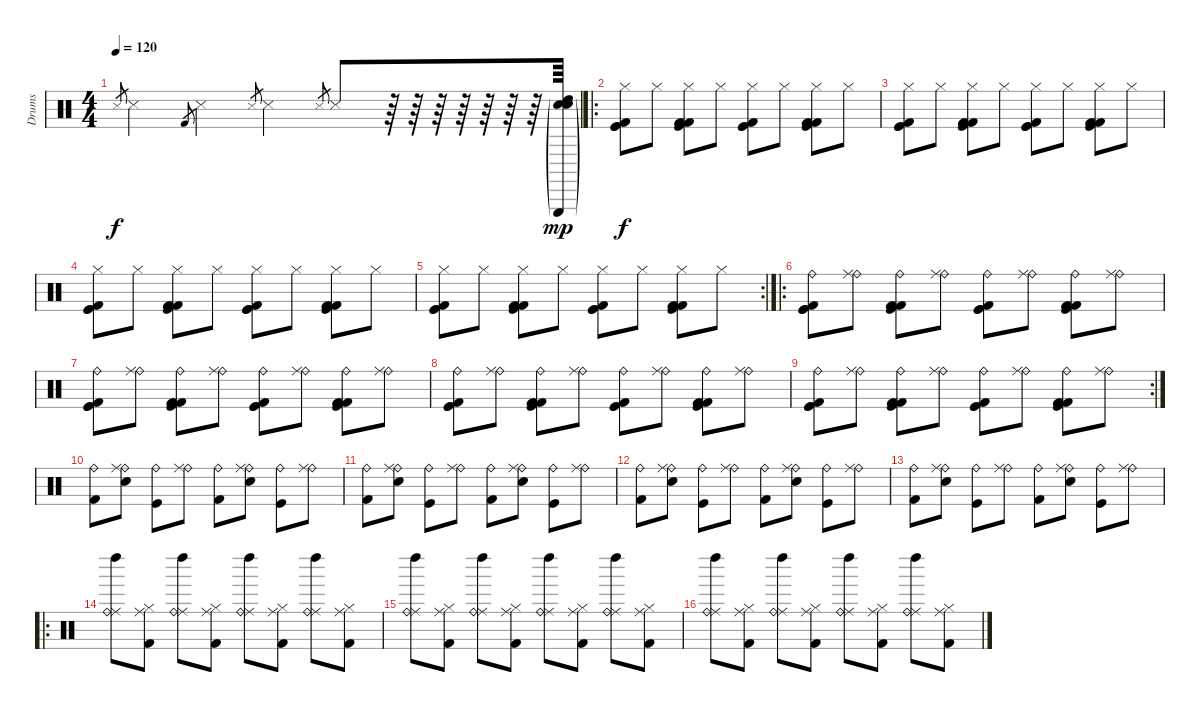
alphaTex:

\track ("Drums" "Drums") {instrument percussion}
\staff {score}
\articulation defaults
\ts (4 4)
\tempo 120
\clef neutral
\ks c "Snare (side stick) 3".8{gr dy f} "Snare (side stick) 3".4 "Kick (hit) 2".8{gr} "Snare (side stick) 3".4 "Snare (side stick) 3".8{gr} "Snare (side stick) 3".4 "Snare (side stick) 3".8{gr} "Snare (side stick) 3".8
r.64 r.64 r.64 r.64 r.64 r.64 r.64 ("Electric Snare (hit)"{g} "Snare (hit) 2"{g} "High Tom (hit)"{g} "Triangle (hit)"{g}).64{dy mp} |
\ro
("Hi-Hat (closed)" "Kick (hit)" "Kick (hit) 2" "Kick (hit)").8{dy f} "Hi-Hat (closed)".8 ("Hi-Hat (closed)" "Kick (hit) 2" "Kick (hit)" "Kick (hit) 2").8 "Hi-Hat (closed)".8 ("Hi-Hat (closed)" "Kick (hit)" "Kick (hit) 2" "Kick (hit)").8 "Hi-Hat (closed)".8 ("Hi-Hat (closed)" "Kick (hit) 2" "Kick (hit)" "Kick (hit) 2").8 "Hi-Hat (closed)".8 |
("Hi-Hat (closed)" "Kick (hit)" "Kick (hit) 2" "Kick (hit)").8 "Hi-Hat (closed)".8 ("Hi-Hat (closed)" "Kick (hit) 2" "Kick (hit)" "Kick (hit) 2").8 "Hi-Hat (closed)".8 ("Hi-Hat (closed)" "Kick (hit)" "Kick (hit) 2" "Kick (hit)").8 "Hi-Hat (closed)".8 ("Hi-Hat (closed)" "Kick (hit) 2" "Kick (hit)" "Kick (hit) 2").8 "Hi-Hat (closed)".8 |
("Hi-Hat (closed)" "Kick (hit)" "Kick (hit) 2" "Kick (hit)").8 "Hi-Hat (closed)".8 ("Hi-Hat (closed)" "Kick (hit) 2" "Kick (hit)" "Kick (hit) 2").8 "Hi-Hat (closed)".8 ("Hi-Hat (closed)" "Kick (hit)" "Kick (hit) 2" "Kick (hit)").8 "Hi-Hat (closed)".8 ("Hi-Hat (closed)" "Kick (hit) 2" "Kick (hit)" "Kick (hit) 2").8 "Hi-Hat (closed)".8 |
\rc 2
("Hi-Hat (closed)" "Kick (hit)" "Kick (hit) 2" "Kick (hit)").8 "Hi-Hat (closed)".8 ("Hi-Hat (closed)" "Kick (hit) 2" "Kick (hit)" "Kick (hit) 2").8 "Hi-Hat (closed)".8 ("Hi-Hat (closed)" "Kick (hit)" "Kick (hit) 2" "Kick (hit)").8 "Hi-Hat (closed)".8 ("Hi-Hat (closed)" "Kick (hit) 2" "Kick (hit)" "Kick (hit) 2").8 "Hi-Hat (closed)".8 |
\ro
("Ride (bell)" "Kick (hit)" "Kick (hit) 2" "Kick (hit)").8 ("Ride (bell)" "Ride (middle)").8 ("Ride (bell)" "Kick (hit) 2" "Kick (hit)" "Kick (hit) 2").8 ("Ride (bell)" "Ride (middle)").8 ("Ride (bell)" "Kick (hit)" "Kick (hit) 2" "Kick (hit)").8 ("Ride (bell)" "Ride (middle)").8 ("Ride (bell)" "Kick (hit) 2" "Kick (hit)" "Kick (hit) 2").8 ("Ride (bell)" "Ride (middle)").8 |
("Ride (bell)" "Kick (hit)" "Kick (hit) 2" "Kick (hit)").8 ("Ride (bell)" "Ride (middle)").8 ("Ride (bell)" "Kick (hit) 2" "Kick (hit)" "Kick (hit) 2").8 ("Ride (bell)" "Ride (middle)").8 ("Ride (bell)" "Kick (hit)" "Kick (hit) 2" "Kick (hit)").8 ("Ride (bell)" "Ride (middle)").8 ("Ride (bell)" "Kick (hit) 2" "Kick (hit)" "Kick (hit) 2").8 ("Ride (bell)" "Ride (middle)").8 |
("Ride (bell)" "Kick (hit)" "Kick (hit) 2" "Kick (hit)").8 ("Ride (bell)" "Ride (middle)").8 ("Ride (bell)" "Kick (hit) 2" "Kick (hit)" "Kick (hit) 2").8 ("Ride (bell)" "Ride (middle)").8 ("Ride (bell)" "Kick (hit)" "Kick (hit) 2" "Kick (hit)").8 ("Ride (bell)" "Ride (middle)").8 ("Ride (bell)" "Kick (hit) 2" "Kick (hit)" "Kick (hit) 2").8 ("Ride (bell)" "Ride (middle)").8 |
\rc 2
("Ride (bell)" "Kick (hit)" "Kick (hit) 2" "Kick (hit)").8 ("Ride (bell)" "Ride (middle)").8 ("Ride (bell)" "Kick (hit) 2" "Kick (hit)" "Kick (hit) 2").8 ("Ride (bell)" "Ride (middle)").8 ("Ride (bell)" "Kick (hit)" "Kick (hit) 2" "Kick (hit)").8 ("Ride (bell)" "Ride (middle)").8 ("Ride (bell)" "Kick (hit) 2" "Kick (hit)" "Kick (hit) 2").8 ("Ride (bell)" "Ride (middle)").8 |
("Ride (bell)" "Kick (hit) 2").8 ("Ride (bell)" "Snare (hit) 2" "Ride (middle)").8 ("Ride (bell)" "Kick (hit)").8 ("Ride (bell)" "Ride (middle)").8 ("Ride (bell)" "Kick (hit) 2").8 ("Ride (bell)" "Snare (hit) 2" "Ride (middle)").8 ("Ride (bell)" "Kick (hit)").8 ("Ride (bell)" "Ride (middle)").8 |
("Ride (bell)" "Kick (hit) 2").8 ("Ride (bell)" "Snare (hit) 2" "Ride (middle)").8 ("Ride (bell)" "Kick (hit)").8 ("Ride (bell)" "Ride (middle)").8 ("Ride (bell)" "Kick (hit) 2").8 ("Ride (bell)" "Snare (hit) 2" "Ride (middle)").8 ("Ride (bell)" "Kick (hit)").8 ("Ride (bell)" "Ride (middle)").8 |
("Ride (bell)" "Kick (hit) 2").8 ("Ride (bell)" "Snare (hit) 2" "Ride (middle)").8 ("Ride (bell)" "Kick (hit)").8 ("Ride (bell)" "Ride (middle)").8 ("Ride (bell)" "Kick (hit) 2").8 ("Ride (bell)" "Snare (hit) 2" "Ride (middle)").8 ("Ride (bell)" "Kick (hit)").8 ("Ride (bell)" "Ride (middle)").8 |
("Ride (bell)" "Kick (hit) 2").8 ("Ride (bell)" "Snare (hit) 2" "Ride (middle)").8 ("Ride (bell)" "Kick (hit)").8 ("Ride (bell)" "Ride (middle)").8 ("Ride (bell)" "Kick (hit) 2").8 ("Ride (bell)" "Snare (hit) 2" "Ride (middle)").8 ("Ride (bell)" "Kick (hit)").8 ("Ride (bell)" "Ride (middle)").8 |
\ro
("Ride (middle)" "Ride (bell)" "Left Maraca (hit)").8 ("Ride (middle)" "Hi-Hat (closed)" "Kick (hit) 2").8 ("Ride (middle)" "Ride (bell)" "Left Maraca (hit)").8 ("Ride (middle)" "Hi-Hat (closed)" "Kick (hit) 2").8 ("Ride (middle)" "Ride (bell)" "Left Maraca (hit)").8 ("Ride (middle)" "Hi-Hat (closed)" "Kick (hit) 2").8 ("Ride (middle)" "Ride (bell)" "Left Maraca (hit)").8 ("Ride (middle)" "Hi-Hat (closed)" "Kick (hit) 2").8 |
("Ride (middle)" "Ride (bell)" "Left Maraca (hit)").8 ("Ride (middle)" "Hi-Hat (closed)" "Kick (hit) 2").8 ("Ride (middle)" "Ride (bell)" "Left Maraca (hit)").8 ("Ride (middle)" "Hi-Hat (closed)" "Kick (hit) 2").8 ("Ride (middle)" "Ride (bell)" "Left Maraca (hit)").8 ("Ride (middle)" "Hi-Hat (closed)" "Kick (hit) 2").8 ("Ride (middle)" "Ride (bell)" "Left Maraca (hit)").8 ("Ride (middle)" "Hi-Hat (closed)" "Kick (hit) 2").8 |
("Ride (middle)" "Ride (bell)" "Left Maraca (hit)").8 ("Ride (middle)" "Hi-Hat (closed)" "Kick (hit) 2").8 ("Ride (middle)" "Ride (bell)" "Left Maraca (hit)").8 ("Ride (middle)" "Hi-Hat (closed)" "Kick (hit) 2").8 ("Ride (middle)" "Ride (bell)" "Left Maraca (hit)").8 ("Ride (middle)" "Hi-Hat (closed)" "Kick (hit) 2").8 ("Ride (middle)" "Ride (bell)" "Left Maraca (hit)").8 ("Ride (middle)" "Hi-Hat (closed)" "Kick (hit) 2").8
